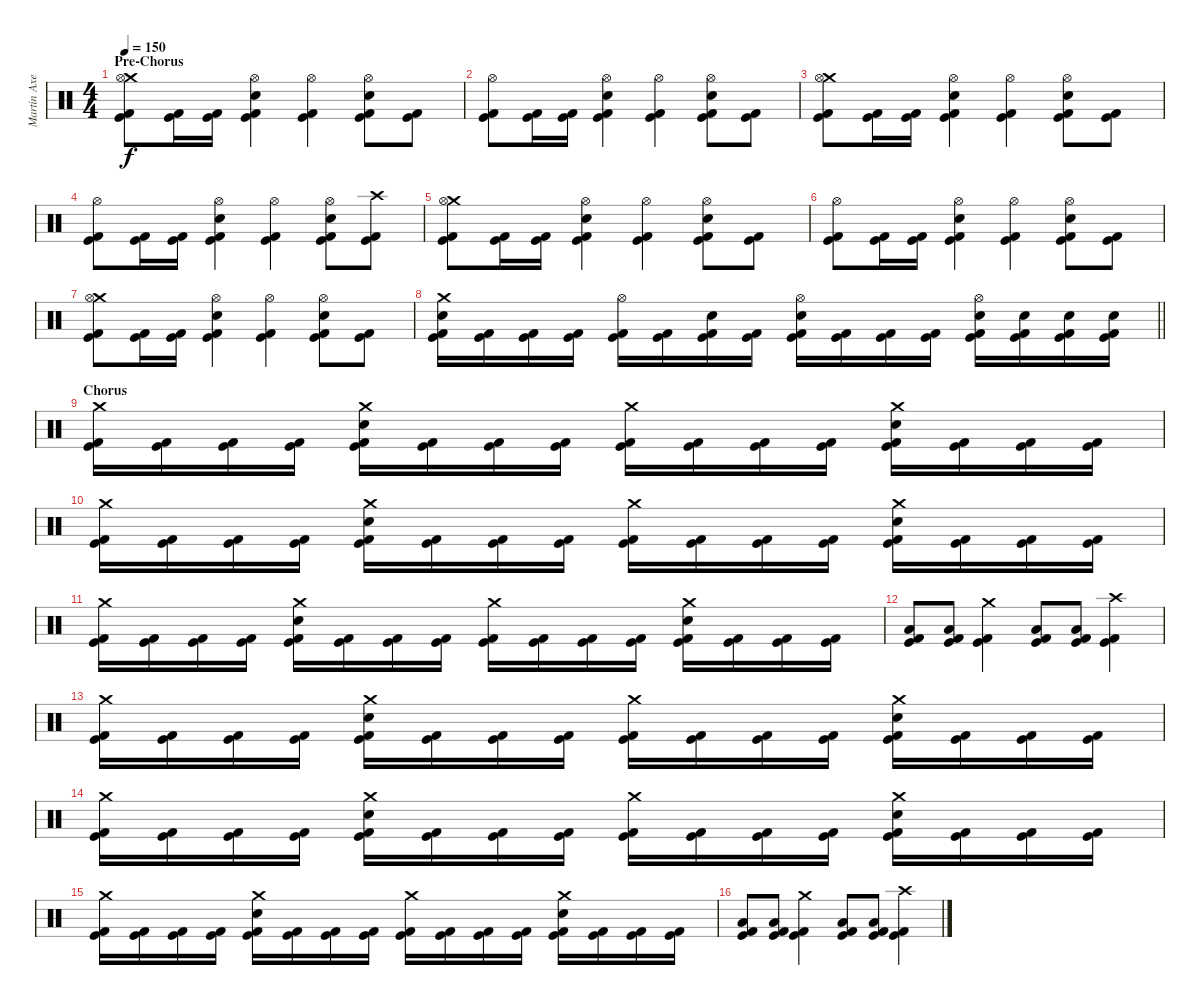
\track ("Martin Axenrot" "Martin Axe") {instrument percussion}
\staff {score}
\articulation defaults
\ts (4 4)
\section ("" "Pre-Chorus")
\tempo 150
\clef neutral
\ks c
("Crash medium (hit)" "Hi-Hat (open)" "Kick (hit) 2" "Kick (hit)").8{dy f} ("Kick (hit) 2" "Kick (hit)").16 ("Kick (hit) 2" "Kick (hit)").16 ("Hi-Hat (open)" "Electric Snare (hit)" "Kick (hit) 2" "Kick (hit)").4 ("Hi-Hat (open)" "Kick (hit) 2" "Kick (hit)").4 ("Hi-Hat (open)" "Electric Snare (hit)" "Kick (hit) 2" "Kick (hit)").8 ("Kick (hit) 2" "Kick (hit)").8 |
("Hi-Hat (open)" "Kick (hit) 2" "Kick (hit)").8 ("Kick (hit) 2" "Kick (hit)").16 ("Kick (hit) 2" "Kick (hit)").16 ("Hi-Hat (open)" "Electric Snare (hit)" "Kick (hit) 2" "Kick (hit)").4 ("Hi-Hat (open)" "Kick (hit) 2" "Kick (hit)").4 ("Hi-Hat (open)" "Electric Snare (hit)" "Kick (hit) 2" "Kick (hit)").8 ("Kick (hit) 2" "Kick (hit)").8 |
("Crash medium (hit)" "Hi-Hat (open)" "Kick (hit) 2" "Kick (hit)").8 ("Kick (hit) 2" "Kick (hit)").16 ("Kick (hit) 2" "Kick (hit)").16 ("Hi-Hat (open)" "Electric Snare (hit)" "Kick (hit) 2" "Kick (hit)").4 ("Hi-Hat (open)" "Kick (hit) 2" "Kick (hit)").4 ("Hi-Hat (open)" "Electric Snare (hit)" "Kick (hit) 2" "Kick (hit)").8 ("Kick (hit) 2" "Kick (hit)").8 |
("Hi-Hat (open)" "Kick (hit) 2" "Kick (hit)").8 ("Kick (hit) 2" "Kick (hit)").16 ("Kick (hit) 2" "Kick (hit)").16 ("Hi-Hat (open)" "Electric Snare (hit)" "Kick (hit) 2" "Kick (hit)").4 ("Hi-Hat (open)" "Kick (hit) 2" "Kick (hit)").4 ("Hi-Hat (open)" "Electric Snare (hit)" "Kick (hit) 2" "Kick (hit)").8 ("Crash high (hit)" "Kick (hit) 2" "Kick (hit)").8 |
("Crash medium (hit)" "Hi-Hat (open)" "Kick (hit) 2" "Kick (hit)").8 ("Kick (hit) 2" "Kick (hit)").16 ("Kick (hit) 2" "Kick (hit)").16 ("Hi-Hat (open)" "Electric Snare (hit)" "Kick (hit) 2" "Kick (hit)").4 ("Hi-Hat (open)" "Kick (hit) 2" "Kick (hit)").4 ("Hi-Hat (open)" "Electric Snare (hit)" "Kick (hit) 2" "Kick (hit)").8 ("Kick (hit) 2" "Kick (hit)").8 |
("Hi-Hat (open)" "Kick (hit) 2" "Kick (hit)").8 ("Kick (hit) 2" "Kick (hit)").16 ("Kick (hit) 2" "Kick (hit)").16 ("Hi-Hat (open)" "Electric Snare (hit)" "Kick (hit) 2" "Kick (hit)").4 ("Hi-Hat (open)" "Kick (hit) 2" "Kick (hit)").4 ("Hi-Hat (open)" "Electric Snare (hit)" "Kick (hit) 2" "Kick (hit)").8 ("Kick (hit) 2" "Kick (hit)").8 |
("Crash medium (hit)" "Hi-Hat (open)" "Kick (hit) 2" "Kick (hit)").8 ("Kick (hit) 2" "Kick (hit)").16 ("Kick (hit) 2" "Kick (hit)").16 ("Hi-Hat (open)" "Electric Snare (hit)" "Kick (hit) 2" "Kick (hit)").4 ("Hi-Hat (open)" "Kick (hit) 2" "Kick (hit)").4 ("Hi-Hat (open)" "Electric Snare (hit)" "Kick (hit) 2" "Kick (hit)").8 ("Kick (hit) 2" "Kick (hit)").8 |
\barLineRight lightlight
("Crash medium (hit)" "Electric Snare (hit)" "Kick (hit) 2" "Kick (hit)").16 ("Kick (hit) 2" "Kick (hit)").16 ("Kick (hit) 2" "Kick (hit)").16 ("Kick (hit) 2" "Kick (hit)").16 ("Hi-Hat (open)" "Kick (hit) 2" "Kick (hit)").16 ("Kick (hit) 2" "Kick (hit)").16 ("Electric Snare (hit)" "Kick (hit) 2" "Kick (hit)").16 ("Kick (hit) 2" "Kick (hit)").16 ("Hi-Hat (open)" "Electric Snare (hit)" "Kick (hit) 2" "Kick (hit)").16 ("Kick (hit) 2" "Kick (hit)").16 ("Kick (hit) 2" "Kick (hit)").16 ("Kick (hit) 2" "Kick (hit)").16 ("Hi-Hat (open)" "Electric Snare (hit)" "Kick (hit) 2" "Kick (hit)").16 ("Electric Snare (hit)" "Kick (hit) 2" "Kick (hit)").16 ("Electric Snare (hit)" "Kick (hit) 2" "Kick (hit)").16 ("Electric Snare (hit)" "Kick (hit) 2" "Kick (hit)").16 |
\section ("" "Chorus")
("Crash medium (hit)" "Kick (hit) 2" "Kick (hit)").16 ("Kick (hit) 2" "Kick (hit)").16 ("Kick (hit) 2" "Kick (hit)").16 ("Kick (hit) 2" "Kick (hit)").16 ("Crash medium (hit)" "Electric Snare (hit)" "Kick (hit) 2" "Kick (hit)").16 ("Kick (hit) 2" "Kick (hit)").16 ("Kick (hit) 2" "Kick (hit)").16 ("Kick (hit) 2" "Kick (hit)").16 ("Crash medium (hit)" "Kick (hit) 2" "Kick (hit)").16 ("Kick (hit) 2" "Kick (hit)").16 ("Kick (hit) 2" "Kick (hit)").16 ("Kick (hit) 2" "Kick (hit)").16 ("Crash medium (hit)" "Electric Snare (hit)" "Kick (hit) 2" "Kick (hit)").16 ("Kick (hit) 2" "Kick (hit)").16 ("Kick (hit) 2" "Kick (hit)").16 ("Kick (hit) 2" "Kick (hit)").16 |
("Crash medium (hit)" "Kick (hit) 2" "Kick (hit)").16 ("Kick (hit) 2" "Kick (hit)").16 ("Kick (hit) 2" "Kick (hit)").16 ("Kick (hit) 2" "Kick (hit)").16 ("Crash medium (hit)" "Electric Snare (hit)" "Kick (hit) 2" "Kick (hit)").16 ("Kick (hit) 2" "Kick (hit)").16 ("Kick (hit) 2" "Kick (hit)").16 ("Kick (hit) 2" "Kick (hit)").16 ("Crash medium (hit)" "Kick (hit) 2" "Kick (hit)").16 ("Kick (hit) 2" "Kick (hit)").16 ("Kick (hit) 2" "Kick (hit)").16 ("Kick (hit) 2" "Kick (hit)").16 ("Crash medium (hit)" "Electric Snare (hit)" "Kick (hit) 2" "Kick (hit)").16 ("Kick (hit) 2" "Kick (hit)").16 ("Kick (hit) 2" "Kick (hit)").16 ("Kick (hit) 2" "Kick (hit)").16 |
("Crash medium (hit)" "Kick (hit) 2" "Kick (hit)").16 ("Kick (hit) 2" "Kick (hit)").16 ("Kick (hit) 2" "Kick (hit)").16 ("Kick (hit) 2" "Kick (hit)").16 ("Crash medium (hit)" "Electric Snare (hit)" "Kick (hit) 2" "Kick (hit)").16 ("Kick (hit) 2" "Kick (hit)").16 ("Kick (hit) 2" "Kick (hit)").16 ("Kick (hit) 2" "Kick (hit)").16 ("Crash medium (hit)" "Kick (hit) 2" "Kick (hit)").16 ("Kick (hit) 2" "Kick (hit)").16 ("Kick (hit) 2" "Kick (hit)").16 ("Kick (hit) 2" "Kick (hit)").16 ("Crash medium (hit)" "Electric Snare (hit)" "Kick (hit) 2" "Kick (hit)").16 ("Kick (hit) 2" "Kick (hit)").16 ("Kick (hit) 2" "Kick (hit)").16 ("Kick (hit) 2" "Kick (hit)").16 |
("Low Floor Tom (hit)" "Kick (hit) 2" "Kick (hit)").8 ("Low Floor Tom (hit)" "Kick (hit) 2" "Kick (hit)").8 ("Crash medium (hit)" "Kick (hit) 2" "Kick (hit)").4 ("Low Floor Tom (hit)" "Kick (hit) 2" "Kick (hit)").8 ("Low Floor Tom (hit)" "Kick (hit) 2" "Kick (hit)").8 ("Crash high (hit)" "Kick (hit) 2" "Kick (hit)").4 |
("Crash medium (hit)" "Kick (hit) 2" "Kick (hit)").16 ("Kick (hit) 2" "Kick (hit)").16 ("Kick (hit) 2" "Kick (hit)").16 ("Kick (hit) 2" "Kick (hit)").16 ("Crash medium (hit)" "Electric Snare (hit)" "Kick (hit) 2" "Kick (hit)").16 ("Kick (hit) 2" "Kick (hit)").16 ("Kick (hit) 2" "Kick (hit)").16 ("Kick (hit) 2" "Kick (hit)").16 ("Crash medium (hit)" "Kick (hit) 2" "Kick (hit)").16 ("Kick (hit) 2" "Kick (hit)").16 ("Kick (hit) 2" "Kick (hit)").16 ("Kick (hit) 2" "Kick (hit)").16 ("Crash medium (hit)" "Electric Snare (hit)" "Kick (hit) 2" "Kick (hit)").16 ("Kick (hit) 2" "Kick (hit)").16 ("Kick (hit) 2" "Kick (hit)").16 ("Kick (hit) 2" "Kick (hit)").16 |
("Crash medium (hit)" "Kick (hit) 2" "Kick (hit)").16 ("Kick (hit) 2" "Kick (hit)").16 ("Kick (hit) 2" "Kick (hit)").16 ("Kick (hit) 2" "Kick (hit)").16 ("Crash medium (hit)" "Electric Snare (hit)" "Kick (hit) 2" "Kick (hit)").16 ("Kick (hit) 2" "Kick (hit)").16 ("Kick (hit) 2" "Kick (hit)").16 ("Kick (hit) 2" "Kick (hit)").16 ("Crash medium (hit)" "Kick (hit) 2" "Kick (hit)").16 ("Kick (hit) 2" "Kick (hit)").16 ("Kick (hit) 2" "Kick (hit)").16 ("Kick (hit) 2" "Kick (hit)").16 ("Crash medium (hit)" "Electric Snare (hit)" "Kick (hit) 2" "Kick (hit)").16 ("Kick (hit) 2" "Kick (hit)").16 ("Kick (hit) 2" "Kick (hit)").16 ("Kick (hit) 2" "Kick (hit)").16 |
("Crash medium (hit)" "Kick (hit) 2" "Kick (hit)").16 ("Kick (hit) 2" "Kick (hit)").16 ("Kick (hit) 2" "Kick (hit)").16 ("Kick (hit) 2" "Kick (hit)").16 ("Crash medium (hit)" "Electric Snare (hit)" "Kick (hit) 2" "Kick (hit)").16 ("Kick (hit) 2" "Kick (hit)").16 ("Kick (hit) 2" "Kick (hit)").16 ("Kick (hit) 2" "Kick (hit)").16 ("Crash medium (hit)" "Kick (hit) 2" "Kick (hit)").16 ("Kick (hit) 2" "Kick (hit)").16 ("Kick (hit) 2" "Kick (hit)").16 ("Kick (hit) 2" "Kick (hit)").16 ("Crash medium (hit)" "Electric Snare (hit)" "Kick (hit) 2" "Kick (hit)").16 ("Kick (hit) 2" "Kick (hit)").16 ("Kick (hit) 2" "Kick (hit)").16 ("Kick (hit) 2" "Kick (hit)").16 |
("Low Floor Tom (hit)" "Kick (hit) 2" "Kick (hit)").8 ("Low Floor Tom (hit)" "Kick (hit) 2" "Kick (hit)").8 ("Crash medium (hit)" "Kick (hit) 2" "Kick (hit)").4 ("Low Floor Tom (hit)" "Kick (hit) 2" "Kick (hit)").8 ("Low Floor Tom (hit)" "Kick (hit) 2" "Kick (hit)").8 ("Crash high (hit)" "Kick (hit) 2" "Kick (hit)").4
